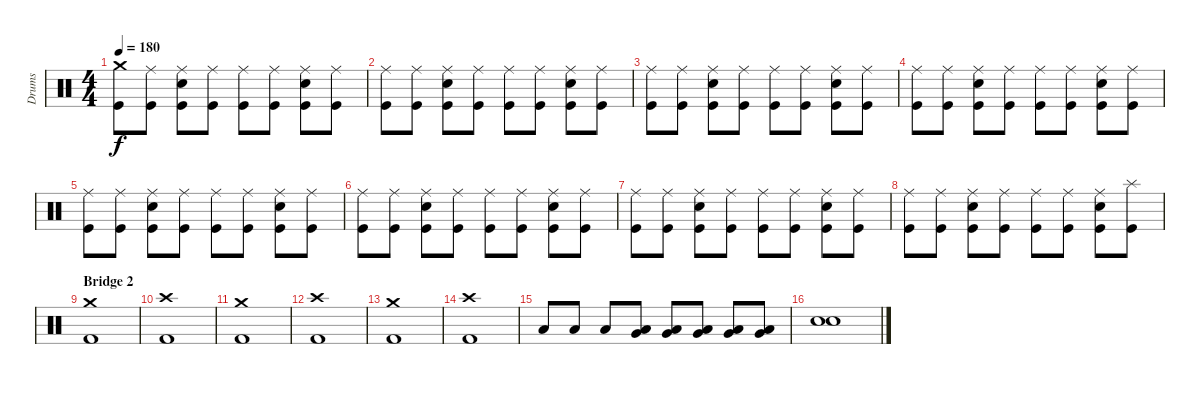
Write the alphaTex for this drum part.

\track ("Drums" "Drums") {instrument percussion}
\staff {score}
\articulation defaults
\ts (4 4)
\tempo 180
\clef neutral
\ks c
("Crash medium (hit)" "Kick (hit)").8{dy f} ("Ride (middle)" "Kick (hit)").8 ("Ride (middle)" "Snare (hit) 2" "Kick (hit)").8 ("Ride (middle)" "Kick (hit)").8 ("Ride (middle)" "Kick (hit)").8 ("Ride (middle)" "Kick (hit)").8 ("Ride (middle)" "Snare (hit) 2" "Kick (hit)").8 ("Ride (middle)" "Kick (hit)").8 |
("Ride (middle)" "Kick (hit)").8 ("Ride (middle)" "Kick (hit)").8 ("Ride (middle)" "Snare (hit) 2" "Kick (hit)").8 ("Ride (middle)" "Kick (hit)").8 ("Ride (middle)" "Kick (hit)").8 ("Ride (middle)" "Kick (hit)").8 ("Ride (middle)" "Snare (hit) 2" "Kick (hit)").8 ("Ride (middle)" "Kick (hit)").8 |
("Ride (middle)" "Kick (hit)").8 ("Ride (middle)" "Kick (hit)").8 ("Ride (middle)" "Snare (hit) 2" "Kick (hit)").8 ("Ride (middle)" "Kick (hit)").8 ("Ride (middle)" "Kick (hit)").8 ("Ride (middle)" "Kick (hit)").8 ("Ride (middle)" "Snare (hit) 2" "Kick (hit)").8 ("Ride (middle)" "Kick (hit)").8 |
("Ride (middle)" "Kick (hit)").8 ("Ride (middle)" "Kick (hit)").8 ("Ride (middle)" "Snare (hit) 2" "Kick (hit)").8 ("Ride (middle)" "Kick (hit)").8 ("Ride (middle)" "Kick (hit)").8 ("Ride (middle)" "Kick (hit)").8 ("Ride (middle)" "Snare (hit) 2" "Kick (hit)").8 ("Ride (middle)" "Kick (hit)").8 |
("Ride (middle)" "Kick (hit)").8 ("Ride (middle)" "Kick (hit)").8 ("Ride (middle)" "Snare (hit) 2" "Kick (hit)").8 ("Ride (middle)" "Kick (hit)").8 ("Ride (middle)" "Kick (hit)").8 ("Ride (middle)" "Kick (hit)").8 ("Ride (middle)" "Snare (hit) 2" "Kick (hit)").8 ("Ride (middle)" "Kick (hit)").8 |
("Ride (middle)" "Kick (hit)").8 ("Ride (middle)" "Kick (hit)").8 ("Ride (middle)" "Snare (hit) 2" "Kick (hit)").8 ("Ride (middle)" "Kick (hit)").8 ("Ride (middle)" "Kick (hit)").8 ("Ride (middle)" "Kick (hit)").8 ("Ride (middle)" "Snare (hit) 2" "Kick (hit)").8 ("Ride (middle)" "Kick (hit)").8 |
("Ride (middle)" "Kick (hit)").8 ("Ride (middle)" "Kick (hit)").8 ("Ride (middle)" "Snare (hit) 2" "Kick (hit)").8 ("Ride (middle)" "Kick (hit)").8 ("Ride (middle)" "Kick (hit)").8 ("Ride (middle)" "Kick (hit)").8 ("Ride (middle)" "Snare (hit) 2" "Kick (hit)").8 ("Ride (middle)" "Kick (hit)").8 |
("Ride (middle)" "Kick (hit)").8 ("Ride (middle)" "Kick (hit)").8 ("Ride (middle)" "Snare (hit) 2" "Kick (hit)").8 ("Ride (middle)" "Kick (hit)").8 ("Ride (middle)" "Kick (hit)").8 ("Ride (middle)" "Kick (hit)").8 ("Ride (middle)" "Snare (hit) 2" "Kick (hit)").8 ("Splash (hit)" "Kick (hit)").8 |
\section ("" "Bridge 2")
("Crash medium (hit)" "Kick (hit) 2").1 |
("Crash high (hit)" "Kick (hit) 2").1 |
("Crash medium (hit)" "Kick (hit) 2").1 |
("Crash high (hit)" "Kick (hit) 2").1 |
("Crash medium (hit)" "Kick (hit) 2").1 |
("Crash high (hit)" "Kick (hit) 2").1 |
"Low Floor Tom (hit)".8 "Low Floor Tom (hit)".8 "Low Floor Tom (hit)".8 ("Very Low Tom (hit)" "Low Floor Tom (hit)").8 ("Very Low Tom (hit)" "Low Floor Tom (hit)").8 ("Very Low Tom (hit)" "Low Floor Tom (hit)").8 ("Very Low Tom (hit)" "Low Floor Tom (hit)").8 ("Very Low Tom (hit)" "Low Floor Tom (hit)").8 |
("Electric Snare (hit)" "Snare (hit) 2").1
